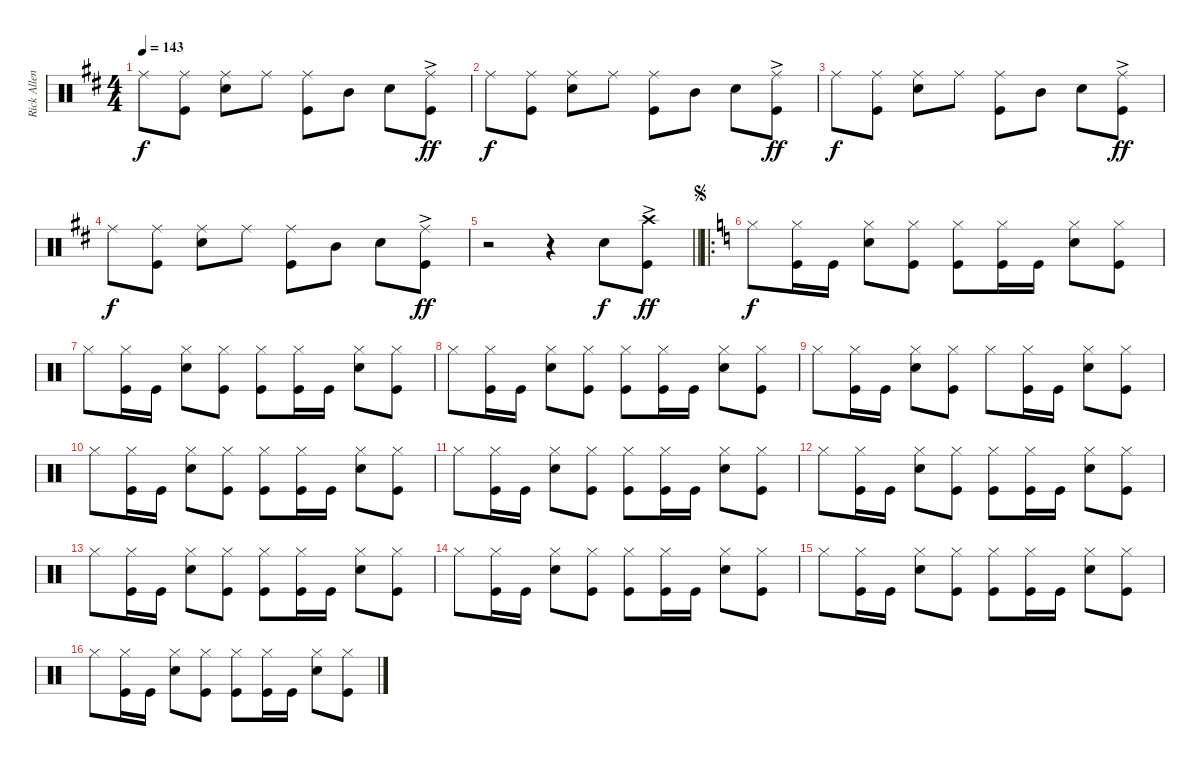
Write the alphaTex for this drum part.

\track ("Rick Allen" "Rick Allen") {instrument percussion}
\staff {score}
\articulation defaults
\ts (4 4)
\tempo 143
\clef neutral
\ks d "Ride (middle)".8{dy f}
("Ride (middle)" "Kick (hit)").8 ("Ride (middle)" "Snare (hit) 2").8 "Ride (middle)".8 ("Ride (middle)" "Kick (hit)").8 "Mid Tom (hit)".8 "Snare (hit) 2".8 ("Ride (middle)"{ac} "Kick (hit)").8{dy ff} |
"Ride (middle)".8{dy f} ("Ride (middle)" "Kick (hit)").8 ("Ride (middle)" "Snare (hit) 2").8 "Ride (middle)".8 ("Ride (middle)" "Kick (hit)").8 "Mid Tom (hit)".8 "Snare (hit) 2".8 ("Ride (middle)"{ac} "Kick (hit)").8{dy ff} |
"Ride (middle)".8{dy f} ("Ride (middle)" "Kick (hit)").8 ("Ride (middle)" "Snare (hit) 2").8 "Ride (middle)".8 ("Ride (middle)" "Kick (hit)").8 "Mid Tom (hit)".8 "Snare (hit) 2".8 ("Ride (middle)"{ac} "Kick (hit)").8{dy ff} |
"Ride (middle)".8{dy f} ("Ride (middle)" "Kick (hit)").8 ("Ride (middle)" "Snare (hit) 2").8 "Ride (middle)".8 ("Ride (middle)" "Kick (hit)").8 "Mid Tom (hit)".8 "Snare (hit) 2".8 ("Ride (middle)"{ac} "Kick (hit)").8{dy ff} |
\barLineRight lightlight
r.2 r.4 "Snare (hit) 2".8{dy f} ("Crash high (hit)" "Kick (hit)"{ac}).8{dy ff} |
\ro
\jump segno
\ks aminor "Hi-Hat (closed)".8{dy f}
("Hi-Hat (closed)" "Kick (hit)").16 "Kick (hit)".16 ("Hi-Hat (closed)" "Snare (hit) 2").8 ("Hi-Hat (closed)" "Kick (hit)").8 ("Hi-Hat (closed)" "Kick (hit)").8 ("Hi-Hat (closed)" "Kick (hit)").16 "Kick (hit)".16 ("Hi-Hat (closed)" "Snare (hit) 2").8 ("Hi-Hat (closed)" "Kick (hit)").8 |
"Hi-Hat (closed)".8 ("Hi-Hat (closed)" "Kick (hit)").16 "Kick (hit)".16 ("Hi-Hat (closed)" "Snare (hit) 2").8 ("Hi-Hat (closed)" "Kick (hit)").8 ("Hi-Hat (closed)" "Kick (hit)").8 ("Hi-Hat (closed)" "Kick (hit)").16 "Kick (hit)".16 ("Hi-Hat (closed)" "Snare (hit) 2").8 ("Hi-Hat (closed)" "Kick (hit)").8 |
"Hi-Hat (closed)".8 ("Hi-Hat (closed)" "Kick (hit)").16 "Kick (hit)".16 ("Hi-Hat (closed)" "Snare (hit) 2").8 ("Hi-Hat (closed)" "Kick (hit)").8 ("Hi-Hat (closed)" "Kick (hit)").8 ("Hi-Hat (closed)" "Kick (hit)").16 "Kick (hit)".16 ("Hi-Hat (closed)" "Snare (hit) 2").8 ("Hi-Hat (closed)" "Kick (hit)").8 |
"Hi-Hat (closed)".8 ("Hi-Hat (closed)" "Kick (hit)").16 "Kick (hit)".16 ("Hi-Hat (closed)" "Snare (hit) 2").8 ("Hi-Hat (closed)" "Kick (hit)").8 "Hi-Hat (closed)".8 ("Hi-Hat (closed)" "Kick (hit)").16 "Kick (hit)".16 ("Hi-Hat (closed)" "Snare (hit) 2").8 ("Hi-Hat (closed)" "Kick (hit)").8 |
"Hi-Hat (closed)".8 ("Hi-Hat (closed)" "Kick (hit)").16 "Kick (hit)".16 ("Hi-Hat (closed)" "Snare (hit) 2").8 ("Hi-Hat (closed)" "Kick (hit)").8 ("Hi-Hat (closed)" "Kick (hit)").8 ("Hi-Hat (closed)" "Kick (hit)").16 "Kick (hit)".16 ("Hi-Hat (closed)" "Snare (hit) 2").8 ("Hi-Hat (closed)" "Kick (hit)").8 |
"Hi-Hat (closed)".8 ("Hi-Hat (closed)" "Kick (hit)").16 "Kick (hit)".16 ("Hi-Hat (closed)" "Snare (hit) 2").8 ("Hi-Hat (closed)" "Kick (hit)").8 ("Hi-Hat (closed)" "Kick (hit)").8 ("Hi-Hat (closed)" "Kick (hit)").16 "Kick (hit)".16 ("Hi-Hat (closed)" "Snare (hit) 2").8 ("Hi-Hat (closed)" "Kick (hit)").8 |
"Hi-Hat (closed)".8 ("Hi-Hat (closed)" "Kick (hit)").16 "Kick (hit)".16 ("Hi-Hat (closed)" "Snare (hit) 2").8 ("Hi-Hat (closed)" "Kick (hit)").8 ("Hi-Hat (closed)" "Kick (hit)").8 ("Hi-Hat (closed)" "Kick (hit)").16 "Kick (hit)".16 ("Hi-Hat (closed)" "Snare (hit) 2").8 ("Hi-Hat (closed)" "Kick (hit)").8 |
"Hi-Hat (closed)".8 ("Hi-Hat (closed)" "Kick (hit)").16 "Kick (hit)".16 ("Hi-Hat (closed)" "Snare (hit) 2").8 ("Hi-Hat (closed)" "Kick (hit)").8 ("Hi-Hat (closed)" "Kick (hit)").8 ("Hi-Hat (closed)" "Kick (hit)").16 "Kick (hit)".16 ("Hi-Hat (closed)" "Snare (hit) 2").8 ("Hi-Hat (closed)" "Kick (hit)").8 |
"Hi-Hat (closed)".8 ("Hi-Hat (closed)" "Kick (hit)").16 "Kick (hit)".16 ("Hi-Hat (closed)" "Snare (hit) 2").8 ("Hi-Hat (closed)" "Kick (hit)").8 ("Hi-Hat (closed)" "Kick (hit)").8 ("Hi-Hat (closed)" "Kick (hit)").16 "Kick (hit)".16 ("Hi-Hat (closed)" "Snare (hit) 2").8 ("Hi-Hat (closed)" "Kick (hit)").8 |
"Hi-Hat (closed)".8 ("Hi-Hat (closed)" "Kick (hit)").16 "Kick (hit)".16 ("Hi-Hat (closed)" "Snare (hit) 2").8 ("Hi-Hat (closed)" "Kick (hit)").8 ("Hi-Hat (closed)" "Kick (hit)").8 ("Hi-Hat (closed)" "Kick (hit)").16 "Kick (hit)".16 ("Hi-Hat (closed)" "Snare (hit) 2").8 ("Hi-Hat (closed)" "Kick (hit)").8 |
"Hi-Hat (closed)".8 ("Hi-Hat (closed)" "Kick (hit)").16 "Kick (hit)".16 ("Hi-Hat (closed)" "Snare (hit) 2").8 ("Hi-Hat (closed)" "Kick (hit)").8 ("Hi-Hat (closed)" "Kick (hit)").8 ("Hi-Hat (closed)" "Kick (hit)").16 "Kick (hit)".16 ("Hi-Hat (closed)" "Snare (hit) 2").8 ("Hi-Hat (closed)" "Kick (hit)").8
